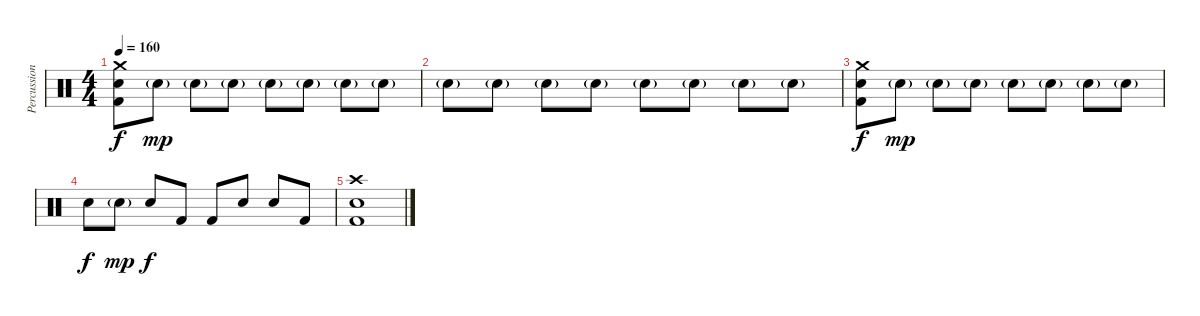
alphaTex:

\track ("Percussion" "Percussion") {instrument percussion}
\staff {score}
\articulation defaults
\ts (4 4)
\tempo 160
\clef neutral
\ks c
("Crash medium (hit)" "Electric Snare (hit)" "Kick (hit) 2").8{dy f} "Electric Snare (hit)"{g}.8{dy mp} "Electric Snare (hit)"{g}.8 "Electric Snare (hit)"{g}.8 "Electric Snare (hit)"{g}.8 "Electric Snare (hit)"{g}.8 "Electric Snare (hit)"{g}.8 "Electric Snare (hit)"{g}.8 |
"Electric Snare (hit)"{g}.8 "Electric Snare (hit)"{g}.8 "Electric Snare (hit)"{g}.8 "Electric Snare (hit)"{g}.8 "Electric Snare (hit)"{g}.8 "Electric Snare (hit)"{g}.8 "Electric Snare (hit)"{g}.8 "Electric Snare (hit)"{g}.8 |
("Crash medium (hit)" "Electric Snare (hit)" "Kick (hit) 2").8{dy f} "Electric Snare (hit)"{g}.8{dy mp} "Electric Snare (hit)"{g}.8 "Electric Snare (hit)"{g}.8 "Electric Snare (hit)"{g}.8 "Electric Snare (hit)"{g}.8 "Electric Snare (hit)"{g}.8 "Electric Snare (hit)"{g}.8 |
"Electric Snare (hit)".8{dy f} "Electric Snare (hit)"{g}.8{dy mp} "Electric Snare (hit)".8{dy f} "Kick (hit) 2".8 "Kick (hit) 2".8 "Electric Snare (hit)".8 "Electric Snare (hit)".8 "Kick (hit) 2".8 |
("Crash high (hit)" "Electric Snare (hit)" "Kick (hit) 2").1
